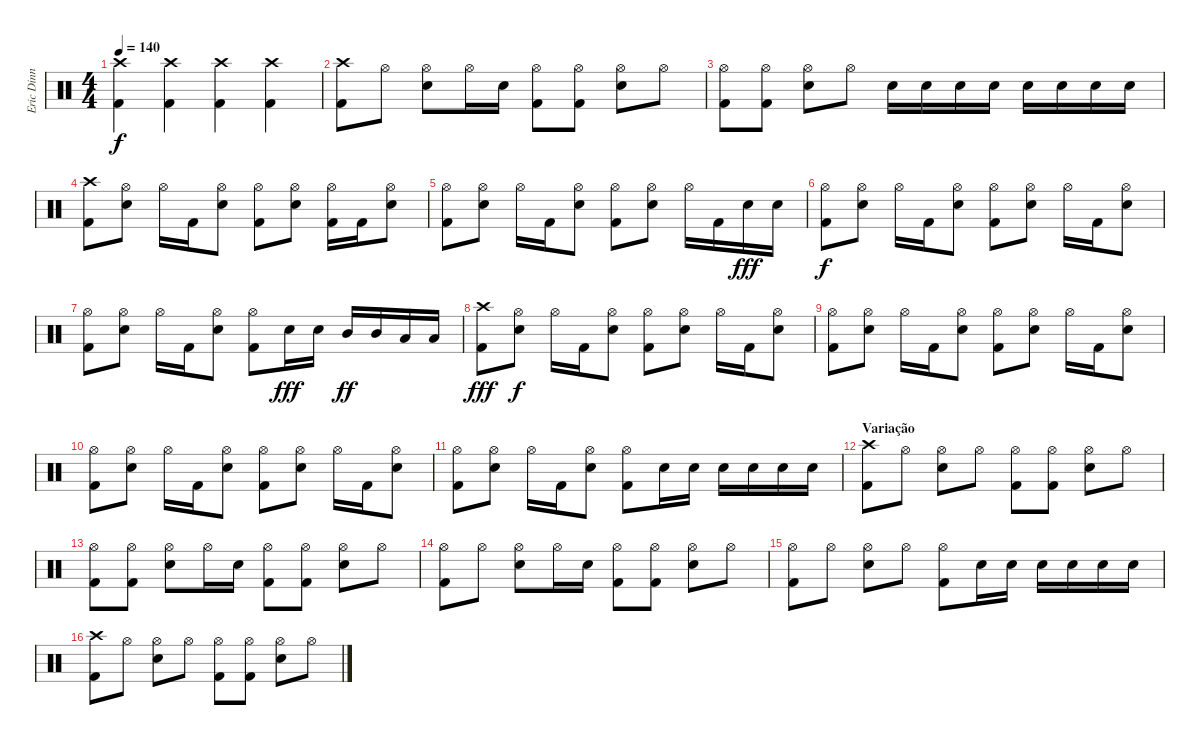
\track ("Eric Dinn" "Eric Dinn") {instrument percussion}
\staff {score}
\articulation defaults
\ts (4 4)
\tempo 140
\clef neutral
\ks c
("Crash high (hit)" "Kick (hit) 2").4{dy f} ("Crash high (hit)" "Kick (hit) 2").4 ("Crash high (hit)" "Kick (hit) 2").4 ("Crash high (hit)" "Kick (hit) 2").4 |
("Crash high (hit)" "Kick (hit) 2").8 "Hi-Hat (open)".8 ("Hi-Hat (open)" "Snare (hit) 2").8 "Hi-Hat (open)".16 "Snare (hit) 2".16 ("Hi-Hat (open)" "Kick (hit) 2").8 ("Hi-Hat (open)" "Kick (hit) 2").8 ("Hi-Hat (open)" "Snare (hit) 2").8 "Hi-Hat (open)".8 |
("Hi-Hat (open)" "Kick (hit) 2").8 ("Hi-Hat (open)" "Kick (hit) 2").8 ("Hi-Hat (open)" "Snare (hit) 2").8 "Hi-Hat (open)".8 "Snare (hit) 2".16 "Snare (hit) 2".16 "Snare (hit) 2".16 "Snare (hit) 2".16 "Snare (hit) 2".16 "Snare (hit) 2".16 "Snare (hit) 2".16 "Snare (hit) 2".16 |
("Crash high (hit)" "Kick (hit) 2").8 ("Hi-Hat (open)" "Snare (hit) 2").8 "Hi-Hat (open)".16 "Kick (hit) 2".16 ("Hi-Hat (open)" "Snare (hit) 2").8 ("Hi-Hat (open)" "Kick (hit) 2").8 ("Hi-Hat (open)" "Snare (hit) 2").8 ("Hi-Hat (open)" "Kick (hit) 2").16 "Kick (hit) 2".16 ("Hi-Hat (open)" "Snare (hit) 2").8 |
("Hi-Hat (open)" "Kick (hit) 2").8 ("Hi-Hat (open)" "Snare (hit) 2").8 "Hi-Hat (open)".16 "Kick (hit) 2".16 ("Hi-Hat (open)" "Snare (hit) 2").8 ("Hi-Hat (open)" "Kick (hit) 2").8 ("Hi-Hat (open)" "Snare (hit) 2").8 "Hi-Hat (open)".16 "Kick (hit) 2".16 "Snare (hit) 2".16{dy fff} "Snare (hit) 2".16 |
("Hi-Hat (open)" "Kick (hit) 2").8{dy f} ("Hi-Hat (open)" "Snare (hit) 2").8 "Hi-Hat (open)".16 "Kick (hit) 2".16 ("Hi-Hat (open)" "Snare (hit) 2").8 ("Hi-Hat (open)" "Kick (hit) 2").8 ("Hi-Hat (open)" "Snare (hit) 2").8 "Hi-Hat (open)".16 "Kick (hit) 2".16 ("Hi-Hat (open)" "Snare (hit) 2").8 |
("Hi-Hat (open)" "Kick (hit) 2").8 ("Hi-Hat (open)" "Snare (hit) 2").8 "Hi-Hat (open)".16 "Kick (hit) 2".16 ("Hi-Hat (open)" "Snare (hit) 2").8 ("Hi-Hat (open)" "Kick (hit) 2").8 "Snare (hit) 2".16{dy fff} "Snare (hit) 2".16 "Mid Tom (hit)".16{dy ff} "Mid Tom (hit)".16 "Low Tom (hit)".16 "Low Tom (hit)".16 |
("Crash high (hit)" "Kick (hit) 2").8{dy fff} ("Hi-Hat (open)" "Snare (hit) 2").8{dy f} "Hi-Hat (open)".16 "Kick (hit) 2".16 ("Hi-Hat (open)" "Snare (hit) 2").8 ("Hi-Hat (open)" "Kick (hit) 2").8 ("Hi-Hat (open)" "Snare (hit) 2").8 "Hi-Hat (open)".16 "Kick (hit) 2".16 ("Hi-Hat (open)" "Snare (hit) 2").8 |
("Hi-Hat (open)" "Kick (hit) 2").8 ("Hi-Hat (open)" "Snare (hit) 2").8 "Hi-Hat (open)".16 "Kick (hit) 2".16 ("Hi-Hat (open)" "Snare (hit) 2").8 ("Hi-Hat (open)" "Kick (hit) 2").8 ("Hi-Hat (open)" "Snare (hit) 2").8 "Hi-Hat (open)".16 "Kick (hit) 2".16 ("Hi-Hat (open)" "Snare (hit) 2").8 |
("Hi-Hat (open)" "Kick (hit) 2").8 ("Hi-Hat (open)" "Snare (hit) 2").8 "Hi-Hat (open)".16 "Kick (hit) 2".16 ("Hi-Hat (open)" "Snare (hit) 2").8 ("Hi-Hat (open)" "Kick (hit) 2").8 ("Hi-Hat (open)" "Snare (hit) 2").8 "Hi-Hat (open)".16 "Kick (hit) 2".16 ("Hi-Hat (open)" "Snare (hit) 2").8 |
("Hi-Hat (open)" "Kick (hit) 2").8 ("Hi-Hat (open)" "Snare (hit) 2").8 "Hi-Hat (open)".16 "Kick (hit) 2".16 ("Hi-Hat (open)" "Snare (hit) 2").8 ("Hi-Hat (open)" "Kick (hit) 2").8 "Snare (hit) 2".16 "Snare (hit) 2".16 "Snare (hit) 2".16 "Snare (hit) 2".16 "Snare (hit) 2".16 "Snare (hit) 2".16 |
\section ("" "Variação")
("Crash high (hit)" "Kick (hit) 2").8 "Hi-Hat (open)".8 ("Hi-Hat (open)" "Snare (hit) 2").8 "Hi-Hat (open)".8 ("Hi-Hat (open)" "Kick (hit) 2").8 ("Hi-Hat (open)" "Kick (hit) 2").8 ("Hi-Hat (open)" "Snare (hit) 2").8 "Hi-Hat (open)".8 |
("Hi-Hat (open)" "Kick (hit) 2").8 ("Hi-Hat (open)" "Kick (hit) 2").8 ("Hi-Hat (open)" "Snare (hit) 2").8 "Hi-Hat (open)".16 "Snare (hit) 2".16 ("Hi-Hat (open)" "Kick (hit) 2").8 ("Hi-Hat (open)" "Kick (hit) 2").8 ("Hi-Hat (open)" "Snare (hit) 2").8 "Hi-Hat (open)".8 |
("Hi-Hat (open)" "Kick (hit) 2").8 "Hi-Hat (open)".8 ("Hi-Hat (open)" "Snare (hit) 2").8 "Hi-Hat (open)".16 "Snare (hit) 2".16 ("Hi-Hat (open)" "Kick (hit) 2").8 ("Hi-Hat (open)" "Kick (hit) 2").8 ("Hi-Hat (open)" "Snare (hit) 2").8 "Hi-Hat (open)".8 |
("Hi-Hat (open)" "Kick (hit) 2").8 "Hi-Hat (open)".8 ("Hi-Hat (open)" "Snare (hit) 2").8 "Hi-Hat (open)".8 ("Hi-Hat (open)" "Kick (hit) 2").8 "Snare (hit) 2".16 "Snare (hit) 2".16 "Snare (hit) 2".16 "Snare (hit) 2".16 "Snare (hit) 2".16 "Snare (hit) 2".16 |
("Crash high (hit)" "Kick (hit) 2").8 "Hi-Hat (open)".8 ("Hi-Hat (open)" "Snare (hit) 2").8 "Hi-Hat (open)".8 ("Hi-Hat (open)" "Kick (hit) 2").8 ("Hi-Hat (open)" "Kick (hit) 2").8 ("Hi-Hat (open)" "Snare (hit) 2").8 "Hi-Hat (open)".8
